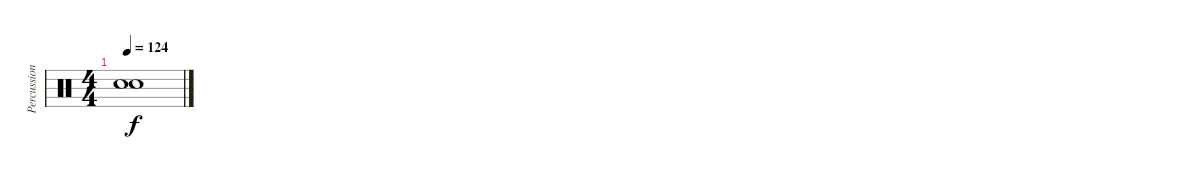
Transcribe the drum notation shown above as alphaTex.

\track ("Percussion" "Percussion") {instrument percussion}
\staff {score}
\articulation defaults
\ts (4 4)
\tempo 124
\clef neutral
\ks c
("Snare (hit)"{t} "Snare (hit)"{t}).1{dy f}
